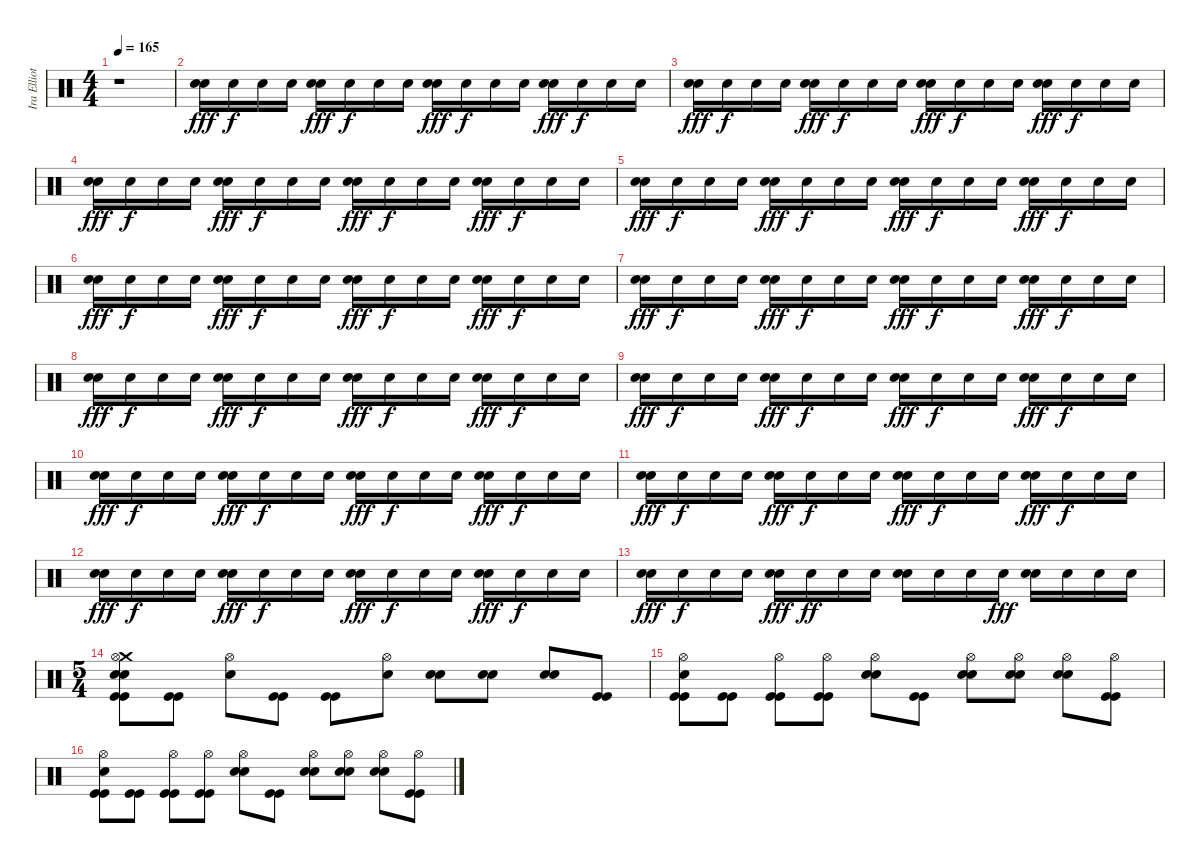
\track ("Ira Elliott (drums)" "Ira Elliot") {instrument percussion}
\staff {score}
\articulation defaults
\ts (4 4)
\tempo 165
\clef neutral
\ks c
r.1{dy fff} |
("Snare (hit) 2" "Electric Snare (hit)").16 "Snare (hit) 2".16{dy f} "Snare (hit) 2".16 "Snare (hit) 2".16 ("Snare (hit) 2" "Electric Snare (hit)").16{dy fff} "Snare (hit) 2".16{dy f} "Snare (hit) 2".16 "Snare (hit) 2".16 ("Snare (hit) 2" "Electric Snare (hit)").16{dy fff} "Snare (hit) 2".16{dy f} "Snare (hit) 2".16 "Snare (hit) 2".16 ("Snare (hit) 2" "Electric Snare (hit)").16{dy fff} "Snare (hit) 2".16{dy f} "Snare (hit) 2".16 "Snare (hit) 2".16 |
("Snare (hit) 2" "Electric Snare (hit)").16{dy fff} "Snare (hit) 2".16{dy f} "Snare (hit) 2".16 "Snare (hit) 2".16 ("Snare (hit) 2" "Electric Snare (hit)").16{dy fff} "Snare (hit) 2".16{dy f} "Snare (hit) 2".16 "Snare (hit) 2".16 ("Snare (hit) 2" "Electric Snare (hit)").16{dy fff} "Snare (hit) 2".16{dy f} "Snare (hit) 2".16 "Snare (hit) 2".16 ("Snare (hit) 2" "Electric Snare (hit)").16{dy fff} "Snare (hit) 2".16{dy f} "Snare (hit) 2".16 "Snare (hit) 2".16 |
("Snare (hit) 2" "Electric Snare (hit)").16{dy fff} "Snare (hit) 2".16{dy f} "Snare (hit) 2".16 "Snare (hit) 2".16 ("Snare (hit) 2" "Electric Snare (hit)").16{dy fff} "Snare (hit) 2".16{dy f} "Snare (hit) 2".16 "Snare (hit) 2".16 ("Snare (hit) 2" "Electric Snare (hit)").16{dy fff} "Snare (hit) 2".16{dy f} "Snare (hit) 2".16 "Snare (hit) 2".16 ("Snare (hit) 2" "Electric Snare (hit)").16{dy fff} "Snare (hit) 2".16{dy f} "Snare (hit) 2".16 "Snare (hit) 2".16 |
("Snare (hit) 2" "Electric Snare (hit)").16{dy fff} "Snare (hit) 2".16{dy f} "Snare (hit) 2".16 "Snare (hit) 2".16 ("Snare (hit) 2" "Electric Snare (hit)").16{dy fff} "Snare (hit) 2".16{dy f} "Snare (hit) 2".16 "Snare (hit) 2".16 ("Snare (hit) 2" "Electric Snare (hit)").16{dy fff} "Snare (hit) 2".16{dy f} "Snare (hit) 2".16 "Snare (hit) 2".16 ("Snare (hit) 2" "Electric Snare (hit)").16{dy fff} "Snare (hit) 2".16{dy f} "Snare (hit) 2".16 "Snare (hit) 2".16 |
("Snare (hit) 2" "Electric Snare (hit)").16{dy fff} "Snare (hit) 2".16{dy f} "Snare (hit) 2".16 "Snare (hit) 2".16 ("Snare (hit) 2" "Electric Snare (hit)").16{dy fff} "Snare (hit) 2".16{dy f} "Snare (hit) 2".16 "Snare (hit) 2".16 ("Snare (hit) 2" "Electric Snare (hit)").16{dy fff} "Snare (hit) 2".16{dy f} "Snare (hit) 2".16 "Snare (hit) 2".16 ("Snare (hit) 2" "Electric Snare (hit)").16{dy fff} "Snare (hit) 2".16{dy f} "Snare (hit) 2".16 "Snare (hit) 2".16 |
("Snare (hit) 2" "Electric Snare (hit)").16{dy fff} "Snare (hit) 2".16{dy f} "Snare (hit) 2".16 "Snare (hit) 2".16 ("Snare (hit) 2" "Electric Snare (hit)").16{dy fff} "Snare (hit) 2".16{dy f} "Snare (hit) 2".16 "Snare (hit) 2".16 ("Snare (hit) 2" "Electric Snare (hit)").16{dy fff} "Snare (hit) 2".16{dy f} "Snare (hit) 2".16 "Snare (hit) 2".16 ("Snare (hit) 2" "Electric Snare (hit)").16{dy fff} "Snare (hit) 2".16{dy f} "Snare (hit) 2".16 "Snare (hit) 2".16 |
("Snare (hit) 2" "Electric Snare (hit)").16{dy fff} "Snare (hit) 2".16{dy f} "Snare (hit) 2".16 "Snare (hit) 2".16 ("Snare (hit) 2" "Electric Snare (hit)").16{dy fff} "Snare (hit) 2".16{dy f} "Snare (hit) 2".16 "Snare (hit) 2".16 ("Snare (hit) 2" "Electric Snare (hit)").16{dy fff} "Snare (hit) 2".16{dy f} "Snare (hit) 2".16 "Snare (hit) 2".16 ("Snare (hit) 2" "Electric Snare (hit)").16{dy fff} "Snare (hit) 2".16{dy f} "Snare (hit) 2".16 "Snare (hit) 2".16 |
("Snare (hit) 2" "Electric Snare (hit)").16{dy fff} "Snare (hit) 2".16{dy f} "Snare (hit) 2".16 "Snare (hit) 2".16 ("Snare (hit) 2" "Electric Snare (hit)").16{dy fff} "Snare (hit) 2".16{dy f} "Snare (hit) 2".16 "Snare (hit) 2".16 ("Snare (hit) 2" "Electric Snare (hit)").16{dy fff} "Snare (hit) 2".16{dy f} "Snare (hit) 2".16 "Snare (hit) 2".16 ("Snare (hit) 2" "Electric Snare (hit)").16{dy fff} "Snare (hit) 2".16{dy f} "Snare (hit) 2".16 "Snare (hit) 2".16 |
("Snare (hit) 2" "Electric Snare (hit)").16{dy fff} "Snare (hit) 2".16{dy f} "Snare (hit) 2".16 "Snare (hit) 2".16 ("Snare (hit) 2" "Electric Snare (hit)").16{dy fff} "Snare (hit) 2".16{dy f} "Snare (hit) 2".16 "Snare (hit) 2".16 ("Snare (hit) 2" "Electric Snare (hit)").16{dy fff} "Snare (hit) 2".16{dy f} "Snare (hit) 2".16 "Snare (hit) 2".16 ("Snare (hit) 2" "Electric Snare (hit)").16{dy fff} "Snare (hit) 2".16{dy f} "Snare (hit) 2".16 "Snare (hit) 2".16 |
("Snare (hit) 2" "Electric Snare (hit)").16{dy fff} "Snare (hit) 2".16{dy f} "Snare (hit) 2".16 "Snare (hit) 2".16 ("Snare (hit) 2" "Electric Snare (hit)").16{dy fff} "Snare (hit) 2".16{dy f} "Snare (hit) 2".16 "Snare (hit) 2".16 ("Snare (hit) 2" "Electric Snare (hit)").16{dy fff} "Snare (hit) 2".16{dy f} "Snare (hit) 2".16 "Snare (hit) 2".16 ("Snare (hit) 2" "Electric Snare (hit)").16{dy fff} "Snare (hit) 2".16{dy f} "Snare (hit) 2".16 "Snare (hit) 2".16 |
("Snare (hit) 2" "Electric Snare (hit)").16{dy fff} "Snare (hit) 2".16{dy f} "Snare (hit) 2".16 "Snare (hit) 2".16 ("Snare (hit) 2" "Electric Snare (hit)").16{dy fff} "Snare (hit) 2".16{dy f} "Snare (hit) 2".16 "Snare (hit) 2".16 ("Snare (hit) 2" "Electric Snare (hit)").16{dy fff} "Snare (hit) 2".16{dy f} "Snare (hit) 2".16 "Snare (hit) 2".16 ("Snare (hit) 2" "Electric Snare (hit)").16{dy fff} "Snare (hit) 2".16{dy f} "Snare (hit) 2".16 "Snare (hit) 2".16 |
("Snare (hit) 2" "Electric Snare (hit)").16{dy fff} "Snare (hit) 2".16{dy f} "Snare (hit) 2".16 "Snare (hit) 2".16 ("Snare (hit) 2" "Electric Snare (hit)").16{dy fff} "Snare (hit) 2".16{dy ff} "Snare (hit) 2".16 "Snare (hit) 2".16 ("Snare (hit) 2" "Electric Snare (hit)").16 "Snare (hit) 2".16 "Snare (hit) 2".16 "Snare (hit) 2".16{dy fff} ("Snare (hit) 2" "Electric Snare (hit)").16 "Snare (hit) 2".16 "Snare (hit) 2".16 "Snare (hit) 2".16 |
\ts (5 4)
("Kick (hit)" "Kick (hit)" "Electric Snare (hit)" "Crash medium (hit)" "Hi-Hat (open)" "Snare (hit) 2").8 ("Kick (hit)" "Kick (hit)").8 ("Snare (hit) 2" "Hi-Hat (open)").8 ("Kick (hit)" "Kick (hit)").8 ("Kick (hit)" "Kick (hit)").8 ("Snare (hit) 2" "Hi-Hat (open)").8 ("Snare (hit) 2" "Electric Snare (hit)").8 ("Snare (hit) 2" "Electric Snare (hit)").8 ("Snare (hit) 2" "Electric Snare (hit)").8 ("Kick (hit)" "Kick (hit)").8 |
("Kick (hit)" "Kick (hit)" "Electric Snare (hit)" "Hi-Hat (open)").8 ("Kick (hit)" "Kick (hit)").8 ("Kick (hit)" "Kick (hit)" "Hi-Hat (open)").8 ("Kick (hit)" "Kick (hit)" "Hi-Hat (open)").8 ("Snare (hit) 2" "Electric Snare (hit)" "Hi-Hat (open)").8 ("Kick (hit)" "Kick (hit)").8 ("Snare (hit) 2" "Electric Snare (hit)" "Hi-Hat (open)").8 ("Snare (hit) 2" "Electric Snare (hit)" "Hi-Hat (open)").8 ("Snare (hit) 2" "Electric Snare (hit)" "Hi-Hat (open)").8 ("Kick (hit)" "Kick (hit)" "Hi-Hat (open)").8 |
("Kick (hit)" "Kick (hit)" "Electric Snare (hit)" "Hi-Hat (open)").8 ("Kick (hit)" "Kick (hit)").8 ("Kick (hit)" "Kick (hit)" "Hi-Hat (open)").8 ("Kick (hit)" "Kick (hit)" "Hi-Hat (open)").8 ("Snare (hit) 2" "Electric Snare (hit)" "Hi-Hat (open)").8 ("Kick (hit)" "Kick (hit)").8 ("Snare (hit) 2" "Electric Snare (hit)" "Hi-Hat (open)").8 ("Snare (hit) 2" "Electric Snare (hit)" "Hi-Hat (open)").8 ("Snare (hit) 2" "Electric Snare (hit)" "Hi-Hat (open)").8 ("Kick (hit)" "Kick (hit)" "Hi-Hat (open)").8
